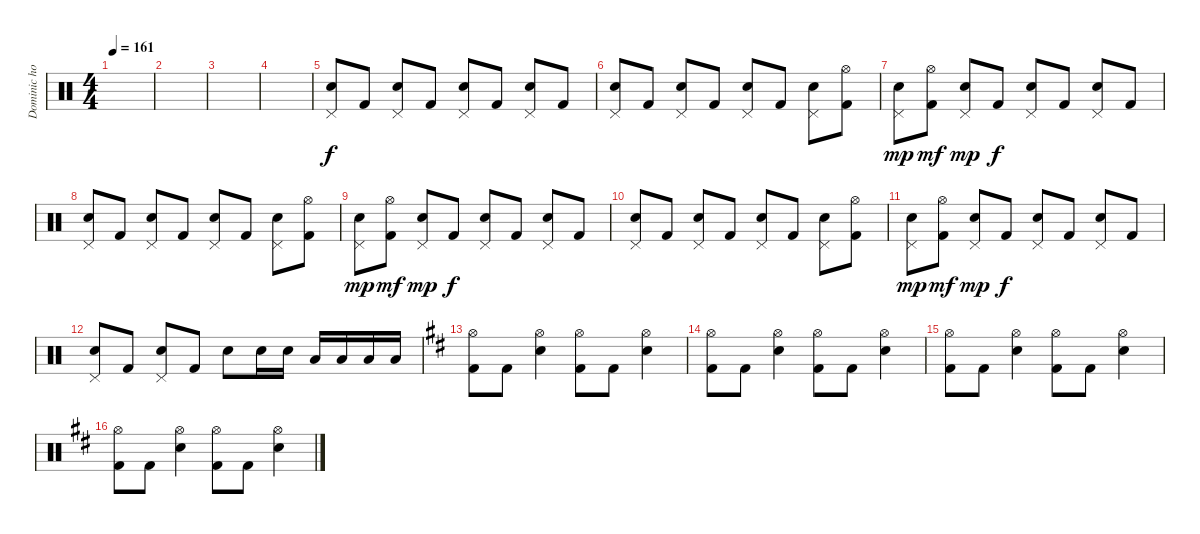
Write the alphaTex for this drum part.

\track ("Dominic howard" "Dominic ho") {instrument percussion}
\staff {score}
\articulation defaults
\ts (4 4)
\tempo 161
\clef neutral
\ks c
|
|
|
|
("Pedal Hi-Hat (hit)" "Electric Snare (hit)").8 "Kick (hit) 2".8 ("Pedal Hi-Hat (hit)" "Electric Snare (hit)").8 "Kick (hit) 2".8 ("Pedal Hi-Hat (hit)" "Electric Snare (hit)").8 "Kick (hit) 2".8 ("Pedal Hi-Hat (hit)" "Electric Snare (hit)").8 "Kick (hit) 2".8 |
("Pedal Hi-Hat (hit)" "Electric Snare (hit)").8 "Kick (hit) 2".8 ("Pedal Hi-Hat (hit)" "Electric Snare (hit)").8 "Kick (hit) 2".8 ("Pedal Hi-Hat (hit)" "Electric Snare (hit)").8 "Kick (hit) 2".8 ("Pedal Hi-Hat (hit)" "Electric Snare (hit)").8 ("Hi-Hat (open)" "Kick (hit) 2").8 |
("Pedal Hi-Hat (hit)" "Electric Snare (hit)").8{dy mp} ("Hi-Hat (open)" "Kick (hit) 2").8{dy mf} ("Pedal Hi-Hat (hit)" "Electric Snare (hit)").8{dy mp} "Kick (hit) 2".8{dy f} ("Pedal Hi-Hat (hit)" "Electric Snare (hit)").8 "Kick (hit) 2".8 ("Pedal Hi-Hat (hit)" "Electric Snare (hit)").8 "Kick (hit) 2".8 |
("Pedal Hi-Hat (hit)" "Electric Snare (hit)").8 "Kick (hit) 2".8 ("Pedal Hi-Hat (hit)" "Electric Snare (hit)").8 "Kick (hit) 2".8 ("Pedal Hi-Hat (hit)" "Electric Snare (hit)").8 "Kick (hit) 2".8 ("Pedal Hi-Hat (hit)" "Electric Snare (hit)").8 ("Hi-Hat (open)" "Kick (hit) 2").8 |
("Pedal Hi-Hat (hit)" "Electric Snare (hit)").8{dy mp} ("Hi-Hat (open)" "Kick (hit) 2").8{dy mf} ("Pedal Hi-Hat (hit)" "Electric Snare (hit)").8{dy mp} "Kick (hit) 2".8{dy f} ("Pedal Hi-Hat (hit)" "Electric Snare (hit)").8 "Kick (hit) 2".8 ("Pedal Hi-Hat (hit)" "Electric Snare (hit)").8 "Kick (hit) 2".8 |
("Pedal Hi-Hat (hit)" "Electric Snare (hit)").8 "Kick (hit) 2".8 ("Pedal Hi-Hat (hit)" "Electric Snare (hit)").8 "Kick (hit) 2".8 ("Pedal Hi-Hat (hit)" "Electric Snare (hit)").8 "Kick (hit) 2".8 ("Pedal Hi-Hat (hit)" "Electric Snare (hit)").8 ("Hi-Hat (open)" "Kick (hit) 2").8 |
("Pedal Hi-Hat (hit)" "Electric Snare (hit)").8{dy mp} ("Hi-Hat (open)" "Kick (hit) 2").8{dy mf} ("Pedal Hi-Hat (hit)" "Electric Snare (hit)").8{dy mp} "Kick (hit) 2".8{dy f} ("Pedal Hi-Hat (hit)" "Electric Snare (hit)").8 "Kick (hit) 2".8 ("Pedal Hi-Hat (hit)" "Electric Snare (hit)").8 "Kick (hit) 2".8 |
("Pedal Hi-Hat (hit)" "Electric Snare (hit)").8 "Kick (hit) 2".8 ("Pedal Hi-Hat (hit)" "Electric Snare (hit)").8 "Kick (hit) 2".8 "Electric Snare (hit)".8 "Electric Snare (hit)".16 "Electric Snare (hit)".16 "Low Tom (hit)".16 "Low Tom (hit)".16 "Low Floor Tom (hit)".16 "Low Floor Tom (hit)".16 |
\ks d
("Hi-Hat (open)" "Kick (hit) 2").8 "Kick (hit) 2".8 ("Hi-Hat (open)" "Electric Snare (hit)").4 ("Hi-Hat (open)" "Kick (hit) 2").8 "Kick (hit) 2".8 ("Hi-Hat (open)" "Electric Snare (hit)").4 |
("Hi-Hat (open)" "Kick (hit) 2").8 "Kick (hit) 2".8 ("Hi-Hat (open)" "Electric Snare (hit)").4 ("Hi-Hat (open)" "Kick (hit) 2").8 "Kick (hit) 2".8 ("Hi-Hat (open)" "Electric Snare (hit)").4 |
("Hi-Hat (open)" "Kick (hit) 2").8 "Kick (hit) 2".8 ("Hi-Hat (open)" "Electric Snare (hit)").4 ("Hi-Hat (open)" "Kick (hit) 2").8 "Kick (hit) 2".8 ("Hi-Hat (open)" "Electric Snare (hit)").4 |
("Hi-Hat (open)" "Kick (hit) 2").8 "Kick (hit) 2".8 ("Hi-Hat (open)" "Electric Snare (hit)").4 ("Hi-Hat (open)" "Kick (hit) 2").8 "Kick (hit) 2".8 ("Hi-Hat (open)" "Electric Snare (hit)").4
